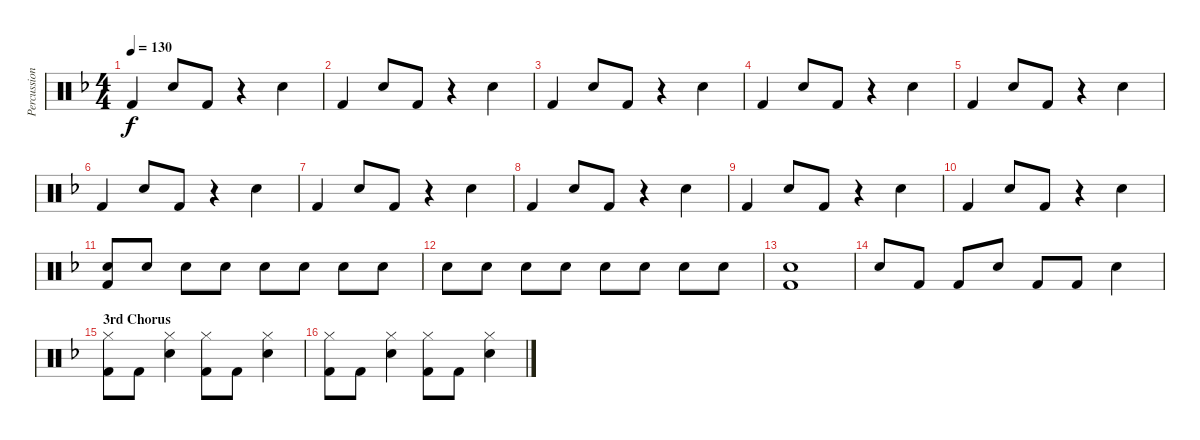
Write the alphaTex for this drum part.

\track ("Percussion" "Percussion") {instrument percussion}
\staff {score}
\articulation defaults
\ts (4 4)
\tempo 130
\clef neutral
\ks dminor "Kick (hit) 2".4{dy f} "Snare (hit) 2".8 "Kick (hit) 2".8
r.4 "Snare (hit) 2".4 |
"Kick (hit) 2".4 "Snare (hit) 2".8 "Kick (hit) 2".8 r.4 "Snare (hit) 2".4 |
"Kick (hit) 2".4 "Snare (hit) 2".8 "Kick (hit) 2".8 r.4 "Snare (hit) 2".4 |
"Kick (hit) 2".4 "Snare (hit) 2".8 "Kick (hit) 2".8 r.4 "Snare (hit) 2".4 |
"Kick (hit) 2".4 "Snare (hit) 2".8 "Kick (hit) 2".8 r.4 "Snare (hit) 2".4 |
"Kick (hit) 2".4 "Snare (hit) 2".8 "Kick (hit) 2".8 r.4 "Snare (hit) 2".4 |
"Kick (hit) 2".4 "Snare (hit) 2".8 "Kick (hit) 2".8 r.4 "Snare (hit) 2".4 |
"Kick (hit) 2".4 "Snare (hit) 2".8 "Kick (hit) 2".8 r.4 "Snare (hit) 2".4 |
"Kick (hit) 2".4 "Snare (hit) 2".8 "Kick (hit) 2".8 r.4 "Snare (hit) 2".4 |
"Kick (hit) 2".4 "Snare (hit) 2".8 "Kick (hit) 2".8 r.4 "Snare (hit) 2".4 |
("Snare (hit) 2" "Kick (hit) 2").8 "Snare (hit) 2".8 "Snare (hit) 2".8 "Snare (hit) 2".8 "Snare (hit) 2".8 "Snare (hit) 2".8 "Snare (hit) 2".8 "Snare (hit) 2".8 |
"Snare (hit) 2".8 "Snare (hit) 2".8 "Snare (hit) 2".8 "Snare (hit) 2".8 "Snare (hit) 2".8 "Snare (hit) 2".8 "Snare (hit) 2".8 "Snare (hit) 2".8 |
("Snare (hit) 2" "Kick (hit) 2").1 |
"Snare (hit) 2".8 "Kick (hit) 2".8 "Kick (hit) 2".8 "Snare (hit) 2".8 "Kick (hit) 2".8 "Kick (hit) 2".8 "Snare (hit) 2".4 |
\section ("" "3rd Chorus")
("Hi-Hat (closed)" "Kick (hit) 2").8 "Kick (hit) 2".8 ("Hi-Hat (closed)" "Snare (hit) 2").4 ("Hi-Hat (closed)" "Kick (hit) 2").8 "Kick (hit) 2".8 ("Hi-Hat (closed)" "Snare (hit) 2").4 |
("Hi-Hat (closed)" "Kick (hit) 2").8 "Kick (hit) 2".8 ("Hi-Hat (closed)" "Snare (hit) 2").4 ("Hi-Hat (closed)" "Kick (hit) 2").8 "Kick (hit) 2".8 ("Hi-Hat (closed)" "Snare (hit) 2").4
